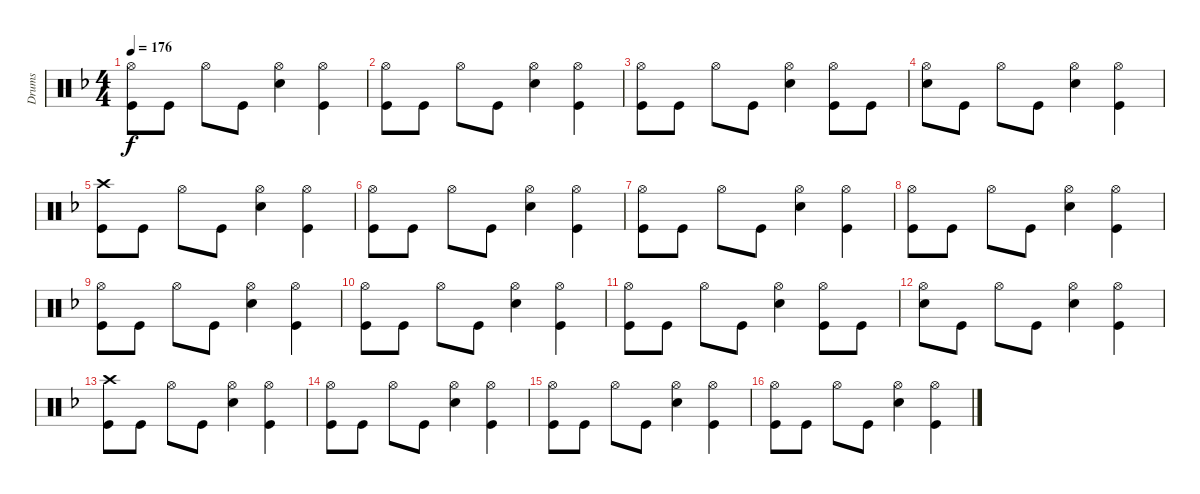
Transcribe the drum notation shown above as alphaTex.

\track ("Drums" "Drums") {instrument percussion}
\staff {score}
\articulation defaults
\ts (4 4)
\tempo 176
\clef neutral
\ks f
("Hi-Hat (open)" "Kick (hit)").8{dy f} "Kick (hit)".8 "Hi-Hat (open)".8 "Kick (hit)".8 ("Hi-Hat (open)" "Snare (hit) 2").4 ("Hi-Hat (open)" "Kick (hit)").4 |
("Hi-Hat (open)" "Kick (hit)").8 "Kick (hit)".8 "Hi-Hat (open)".8 "Kick (hit)".8 ("Hi-Hat (open)" "Snare (hit) 2").4 ("Hi-Hat (open)" "Kick (hit)").4 |
("Hi-Hat (open)" "Kick (hit)").8 "Kick (hit)".8 "Hi-Hat (open)".8 "Kick (hit)".8 ("Hi-Hat (open)" "Snare (hit) 2").4 ("Hi-Hat (open)" "Kick (hit)").8 "Kick (hit)".8 |
("Hi-Hat (open)" "Snare (hit) 2").8 "Kick (hit)".8 "Hi-Hat (open)".8 "Kick (hit)".8 ("Hi-Hat (open)" "Snare (hit) 2").4 ("Hi-Hat (open)" "Kick (hit)").4 |
("Crash high (hit)" "Kick (hit)").8 "Kick (hit)".8 "Hi-Hat (open)".8 "Kick (hit)".8 ("Hi-Hat (open)" "Snare (hit) 2").4 ("Hi-Hat (open)" "Kick (hit)").4 |
("Hi-Hat (open)" "Kick (hit)").8 "Kick (hit)".8 "Hi-Hat (open)".8 "Kick (hit)".8 ("Hi-Hat (open)" "Snare (hit) 2").4 ("Hi-Hat (open)" "Kick (hit)").4 |
("Hi-Hat (open)" "Kick (hit)").8 "Kick (hit)".8 "Hi-Hat (open)".8 "Kick (hit)".8 ("Hi-Hat (open)" "Snare (hit) 2").4 ("Hi-Hat (open)" "Kick (hit)").4 |
("Hi-Hat (open)" "Kick (hit)").8 "Kick (hit)".8 "Hi-Hat (open)".8 "Kick (hit)".8 ("Hi-Hat (open)" "Snare (hit) 2").4 ("Hi-Hat (open)" "Kick (hit)").4 |
("Hi-Hat (open)" "Kick (hit)").8 "Kick (hit)".8 "Hi-Hat (open)".8 "Kick (hit)".8 ("Hi-Hat (open)" "Snare (hit) 2").4 ("Hi-Hat (open)" "Kick (hit)").4 |
("Hi-Hat (open)" "Kick (hit)").8 "Kick (hit)".8 "Hi-Hat (open)".8 "Kick (hit)".8 ("Hi-Hat (open)" "Snare (hit) 2").4 ("Hi-Hat (open)" "Kick (hit)").4 |
("Hi-Hat (open)" "Kick (hit)").8 "Kick (hit)".8 "Hi-Hat (open)".8 "Kick (hit)".8 ("Hi-Hat (open)" "Snare (hit) 2").4 ("Hi-Hat (open)" "Kick (hit)").8 "Kick (hit)".8 |
("Hi-Hat (open)" "Snare (hit) 2").8 "Kick (hit)".8 "Hi-Hat (open)".8 "Kick (hit)".8 ("Hi-Hat (open)" "Snare (hit) 2").4 ("Hi-Hat (open)" "Kick (hit)").4 |
("Crash high (hit)" "Kick (hit)").8 "Kick (hit)".8 "Hi-Hat (open)".8 "Kick (hit)".8 ("Hi-Hat (open)" "Snare (hit) 2").4 ("Hi-Hat (open)" "Kick (hit)").4 |
("Hi-Hat (open)" "Kick (hit)").8 "Kick (hit)".8 "Hi-Hat (open)".8 "Kick (hit)".8 ("Hi-Hat (open)" "Snare (hit) 2").4 ("Hi-Hat (open)" "Kick (hit)").4 |
("Hi-Hat (open)" "Kick (hit)").8 "Kick (hit)".8 "Hi-Hat (open)".8 "Kick (hit)".8 ("Hi-Hat (open)" "Snare (hit) 2").4 ("Hi-Hat (open)" "Kick (hit)").4 |
("Hi-Hat (open)" "Kick (hit)").8 "Kick (hit)".8 "Hi-Hat (open)".8 "Kick (hit)".8 ("Hi-Hat (open)" "Snare (hit) 2").4 ("Hi-Hat (open)" "Kick (hit)").4
